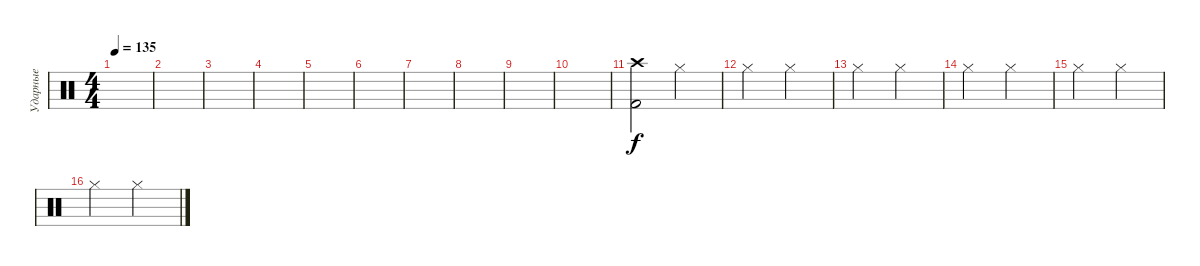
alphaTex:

\track ("Ударные" "Ударные") {instrument percussion}
\staff {score}
\articulation defaults
\ts (4 4)
\tempo 135
\clef neutral
\ks c
|
|
|
|
|
|
|
|
|
|
("Crash high (hit)" "Kick (hit) 2").2 "Hi-Hat (closed)".2 |
"Hi-Hat (closed)".2 "Hi-Hat (closed)".2 |
"Hi-Hat (closed)".2 "Hi-Hat (closed)".2 |
"Hi-Hat (closed)".2 "Hi-Hat (closed)".2 |
"Hi-Hat (closed)".2 "Hi-Hat (closed)".2 |
"Hi-Hat (closed)".2 "Hi-Hat (closed)".2
